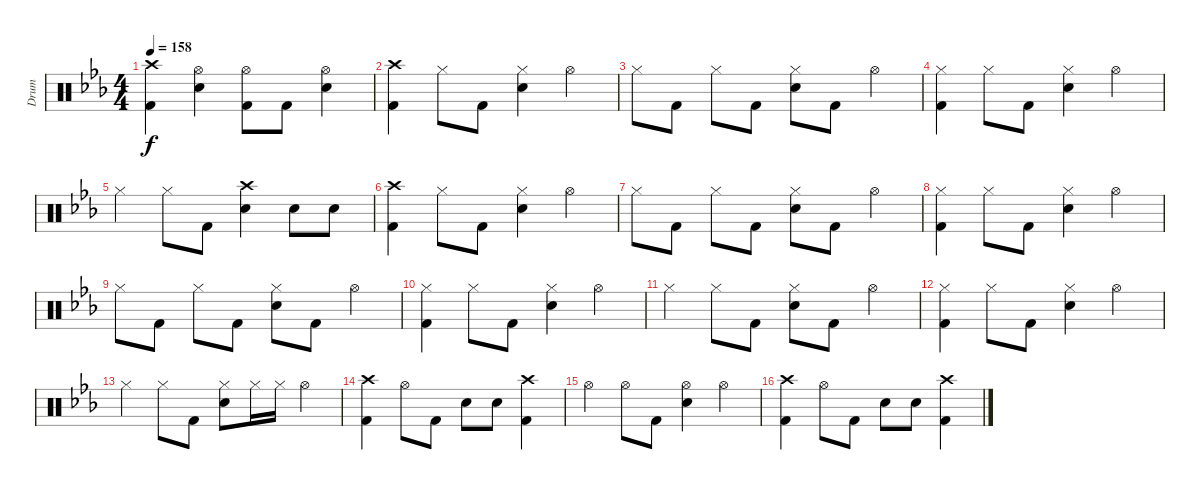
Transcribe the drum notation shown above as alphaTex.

\track ("Drum" "Drum") {instrument percussion}
\staff {score}
\articulation defaults
\ts (4 4)
\tempo 158
\clef neutral
\ks eb
("Crash high (hit)" "Kick (hit) 2").4{dy f} ("Hi-Hat (open)" "Snare (hit) 2").4 ("Hi-Hat (open)" "Kick (hit) 2").8 "Kick (hit) 2".8 ("Hi-Hat (open)" "Snare (hit) 2").4 |
("Crash high (hit)" "Kick (hit) 2").4 "Hi-Hat (closed)".8 "Kick (hit) 2".8 ("Hi-Hat (closed)" "Snare (hit) 2").4 "Hi-Hat (open)".4 |
"Hi-Hat (closed)".8 "Kick (hit) 2".8 "Hi-Hat (closed)".8 "Kick (hit) 2".8 ("Hi-Hat (closed)" "Snare (hit) 2").8 "Kick (hit) 2".8 "Hi-Hat (open)".4 |
("Hi-Hat (closed)" "Kick (hit) 2").4 "Hi-Hat (closed)".8 "Kick (hit) 2".8 ("Hi-Hat (closed)" "Snare (hit) 2").4 "Hi-Hat (open)".4 |
"Hi-Hat (closed)".4 "Hi-Hat (closed)".8 "Kick (hit) 2".8 ("Crash high (hit)" "Snare (hit) 2").4 "Snare (hit) 2".8 "Snare (hit) 2".8 |
("Crash high (hit)" "Kick (hit) 2").4 "Hi-Hat (closed)".8 "Kick (hit) 2".8 ("Hi-Hat (closed)" "Snare (hit) 2").4 "Hi-Hat (open)".4 |
"Hi-Hat (closed)".8 "Kick (hit) 2".8 "Hi-Hat (closed)".8 "Kick (hit) 2".8 ("Hi-Hat (closed)" "Snare (hit) 2").8 "Kick (hit) 2".8 "Hi-Hat (open)".4 |
("Hi-Hat (closed)" "Kick (hit) 2").4 "Hi-Hat (closed)".8 "Kick (hit) 2".8 ("Hi-Hat (closed)" "Snare (hit) 2").4 "Hi-Hat (open)".4 |
"Hi-Hat (closed)".8 "Kick (hit) 2".8 "Hi-Hat (closed)".8 "Kick (hit) 2".8 ("Hi-Hat (closed)" "Snare (hit) 2").8 "Kick (hit) 2".8 "Hi-Hat (open)".4 |
("Hi-Hat (closed)" "Kick (hit) 2").4 "Hi-Hat (closed)".8 "Kick (hit) 2".8 ("Hi-Hat (closed)" "Snare (hit) 2").4 "Hi-Hat (open)".4 |
"Hi-Hat (closed)".4 "Hi-Hat (closed)".8 "Kick (hit) 2".8 ("Hi-Hat (closed)" "Snare (hit) 2").8 "Kick (hit) 2".8 "Hi-Hat (open)".4 |
("Hi-Hat (closed)" "Kick (hit) 2").4 "Hi-Hat (closed)".8 "Kick (hit) 2".8 ("Hi-Hat (closed)" "Snare (hit) 2").4 "Hi-Hat (open)".4 |
"Hi-Hat (closed)".4 "Hi-Hat (closed)".8 "Kick (hit) 2".8 ("Hi-Hat (closed)" "Snare (hit) 2").8 "Hi-Hat (closed)".16 "Hi-Hat (closed)".16 "Hi-Hat (open)".4 |
("Crash high (hit)" "Kick (hit) 2").4 "Hi-Hat (open)".8 "Kick (hit) 2".8 "Snare (hit) 2".8 "Snare (hit) 2".8 ("Crash high (hit)" "Kick (hit) 2").4 |
"Hi-Hat (open)".4 "Hi-Hat (open)".8 "Kick (hit) 2".8 ("Hi-Hat (open)" "Snare (hit) 2").4 "Hi-Hat (open)".4 |
("Crash high (hit)" "Kick (hit) 2").4 "Hi-Hat (open)".8 "Kick (hit) 2".8 "Snare (hit) 2".8 "Snare (hit) 2".8 ("Crash high (hit)" "Kick (hit) 2").4
